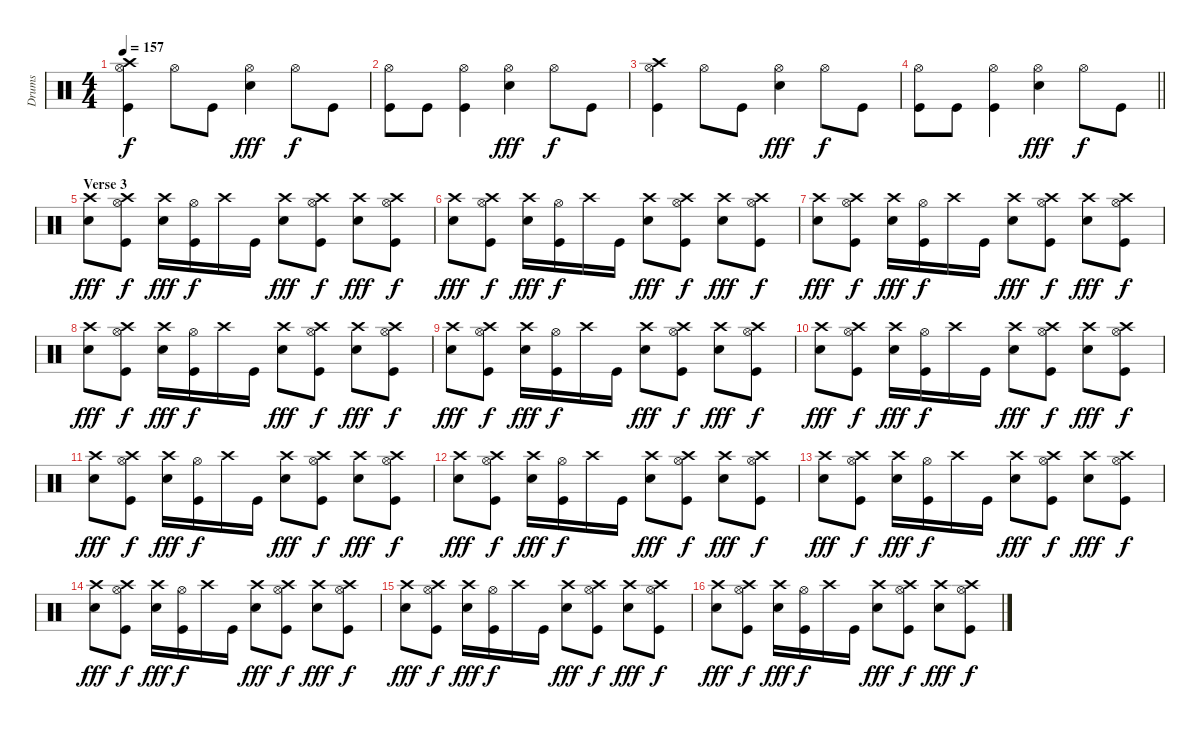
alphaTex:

\track ("Drums" "Drums") {instrument percussion}
\staff {score}
\articulation defaults
\ts (4 4)
\tempo 157
\clef neutral
\ks c
("Crash high (hit)" "Hi-Hat (open)" "Kick (hit)").4{dy f} "Hi-Hat (open)".8 "Kick (hit)".8 ("Hi-Hat (open)" "Snare (hit) 2").4{dy fff} "Hi-Hat (open)".8{dy f} "Kick (hit)".8 |
("Hi-Hat (open)" "Kick (hit)").8 "Kick (hit)".8 ("Hi-Hat (open)" "Kick (hit)").4 ("Hi-Hat (open)" "Snare (hit) 2").4{dy fff} "Hi-Hat (open)".8{dy f} "Kick (hit)".8 |
("Crash high (hit)" "Hi-Hat (open)" "Kick (hit)").4 "Hi-Hat (open)".8 "Kick (hit)".8 ("Hi-Hat (open)" "Snare (hit) 2").4{dy fff} "Hi-Hat (open)".8{dy f} "Kick (hit)".8 |
\barLineRight lightlight
("Hi-Hat (open)" "Kick (hit)").8 "Kick (hit)".8 ("Hi-Hat (open)" "Kick (hit)").4 ("Hi-Hat (open)" "Snare (hit) 2").4{dy fff} "Hi-Hat (open)".8{dy f} "Kick (hit)".8 |
\section ("" "Verse 3")
("Crash high (hit)" "Snare (hit) 2").8{dy fff} ("Crash high (hit)" "Hi-Hat (open)" "Kick (hit)").8{dy f} ("Crash high (hit)" "Snare (hit) 2").16{dy fff} ("Hi-Hat (open)" "Kick (hit)").16{dy f} "Crash high (hit)".16 "Kick (hit)".16 ("Crash high (hit)" "Snare (hit) 2").8{dy fff} ("Crash high (hit)" "Hi-Hat (open)" "Kick (hit)").8{dy f} ("Crash high (hit)" "Snare (hit) 2").8{dy fff} ("Crash high (hit)" "Hi-Hat (open)" "Kick (hit)").8{dy f} |
("Crash high (hit)" "Snare (hit) 2").8{dy fff} ("Crash high (hit)" "Hi-Hat (open)" "Kick (hit)").8{dy f} ("Crash high (hit)" "Snare (hit) 2").16{dy fff} ("Hi-Hat (open)" "Kick (hit)").16{dy f} "Crash high (hit)".16 "Kick (hit)".16 ("Crash high (hit)" "Snare (hit) 2").8{dy fff} ("Crash high (hit)" "Hi-Hat (open)" "Kick (hit)").8{dy f} ("Crash high (hit)" "Snare (hit) 2").8{dy fff} ("Crash high (hit)" "Hi-Hat (open)" "Kick (hit)").8{dy f} |
("Crash high (hit)" "Snare (hit) 2").8{dy fff} ("Crash high (hit)" "Hi-Hat (open)" "Kick (hit)").8{dy f} ("Crash high (hit)" "Snare (hit) 2").16{dy fff} ("Hi-Hat (open)" "Kick (hit)").16{dy f} "Crash high (hit)".16 "Kick (hit)".16 ("Crash high (hit)" "Snare (hit) 2").8{dy fff} ("Crash high (hit)" "Hi-Hat (open)" "Kick (hit)").8{dy f} ("Crash high (hit)" "Snare (hit) 2").8{dy fff} ("Crash high (hit)" "Hi-Hat (open)" "Kick (hit)").8{dy f} |
("Crash high (hit)" "Snare (hit) 2").8{dy fff} ("Crash high (hit)" "Hi-Hat (open)" "Kick (hit)").8{dy f} ("Crash high (hit)" "Snare (hit) 2").16{dy fff} ("Hi-Hat (open)" "Kick (hit)").16{dy f} "Crash high (hit)".16 "Kick (hit)".16 ("Crash high (hit)" "Snare (hit) 2").8{dy fff} ("Crash high (hit)" "Hi-Hat (open)" "Kick (hit)").8{dy f} ("Crash high (hit)" "Snare (hit) 2").8{dy fff} ("Crash high (hit)" "Hi-Hat (open)" "Kick (hit)").8{dy f} |
("Crash high (hit)" "Snare (hit) 2").8{dy fff} ("Crash high (hit)" "Hi-Hat (open)" "Kick (hit)").8{dy f} ("Crash high (hit)" "Snare (hit) 2").16{dy fff} ("Hi-Hat (open)" "Kick (hit)").16{dy f} "Crash high (hit)".16 "Kick (hit)".16 ("Crash high (hit)" "Snare (hit) 2").8{dy fff} ("Crash high (hit)" "Hi-Hat (open)" "Kick (hit)").8{dy f} ("Crash high (hit)" "Snare (hit) 2").8{dy fff} ("Crash high (hit)" "Hi-Hat (open)" "Kick (hit)").8{dy f} |
("Crash high (hit)" "Snare (hit) 2").8{dy fff} ("Crash high (hit)" "Hi-Hat (open)" "Kick (hit)").8{dy f} ("Crash high (hit)" "Snare (hit) 2").16{dy fff} ("Hi-Hat (open)" "Kick (hit)").16{dy f} "Crash high (hit)".16 "Kick (hit)".16 ("Crash high (hit)" "Snare (hit) 2").8{dy fff} ("Crash high (hit)" "Hi-Hat (open)" "Kick (hit)").8{dy f} ("Crash high (hit)" "Snare (hit) 2").8{dy fff} ("Crash high (hit)" "Hi-Hat (open)" "Kick (hit)").8{dy f} |
("Crash high (hit)" "Snare (hit) 2").8{dy fff} ("Crash high (hit)" "Hi-Hat (open)" "Kick (hit)").8{dy f} ("Crash high (hit)" "Snare (hit) 2").16{dy fff} ("Hi-Hat (open)" "Kick (hit)").16{dy f} "Crash high (hit)".16 "Kick (hit)".16 ("Crash high (hit)" "Snare (hit) 2").8{dy fff} ("Crash high (hit)" "Hi-Hat (open)" "Kick (hit)").8{dy f} ("Crash high (hit)" "Snare (hit) 2").8{dy fff} ("Crash high (hit)" "Hi-Hat (open)" "Kick (hit)").8{dy f} |
("Crash high (hit)" "Snare (hit) 2").8{dy fff} ("Crash high (hit)" "Hi-Hat (open)" "Kick (hit)").8{dy f} ("Crash high (hit)" "Snare (hit) 2").16{dy fff} ("Hi-Hat (open)" "Kick (hit)").16{dy f} "Crash high (hit)".16 "Kick (hit)".16 ("Crash high (hit)" "Snare (hit) 2").8{dy fff} ("Crash high (hit)" "Hi-Hat (open)" "Kick (hit)").8{dy f} ("Crash high (hit)" "Snare (hit) 2").8{dy fff} ("Crash high (hit)" "Hi-Hat (open)" "Kick (hit)").8{dy f} |
("Crash high (hit)" "Snare (hit) 2").8{dy fff} ("Crash high (hit)" "Hi-Hat (open)" "Kick (hit)").8{dy f} ("Crash high (hit)" "Snare (hit) 2").16{dy fff} ("Hi-Hat (open)" "Kick (hit)").16{dy f} "Crash high (hit)".16 "Kick (hit)".16 ("Crash high (hit)" "Snare (hit) 2").8{dy fff} ("Crash high (hit)" "Hi-Hat (open)" "Kick (hit)").8{dy f} ("Crash high (hit)" "Snare (hit) 2").8{dy fff} ("Crash high (hit)" "Hi-Hat (open)" "Kick (hit)").8{dy f} |
("Crash high (hit)" "Snare (hit) 2").8{dy fff} ("Crash high (hit)" "Hi-Hat (open)" "Kick (hit)").8{dy f} ("Crash high (hit)" "Snare (hit) 2").16{dy fff} ("Hi-Hat (open)" "Kick (hit)").16{dy f} "Crash high (hit)".16 "Kick (hit)".16 ("Crash high (hit)" "Snare (hit) 2").8{dy fff} ("Crash high (hit)" "Hi-Hat (open)" "Kick (hit)").8{dy f} ("Crash high (hit)" "Snare (hit) 2").8{dy fff} ("Crash high (hit)" "Hi-Hat (open)" "Kick (hit)").8{dy f} |
("Crash high (hit)" "Snare (hit) 2").8{dy fff} ("Crash high (hit)" "Hi-Hat (open)" "Kick (hit)").8{dy f} ("Crash high (hit)" "Snare (hit) 2").16{dy fff} ("Hi-Hat (open)" "Kick (hit)").16{dy f} "Crash high (hit)".16 "Kick (hit)".16 ("Crash high (hit)" "Snare (hit) 2").8{dy fff} ("Crash high (hit)" "Hi-Hat (open)" "Kick (hit)").8{dy f} ("Crash high (hit)" "Snare (hit) 2").8{dy fff} ("Crash high (hit)" "Hi-Hat (open)" "Kick (hit)").8{dy f} |
("Crash high (hit)" "Snare (hit) 2").8{dy fff} ("Crash high (hit)" "Hi-Hat (open)" "Kick (hit)").8{dy f} ("Crash high (hit)" "Snare (hit) 2").16{dy fff} ("Hi-Hat (open)" "Kick (hit)").16{dy f} "Crash high (hit)".16 "Kick (hit)".16 ("Crash high (hit)" "Snare (hit) 2").8{dy fff} ("Crash high (hit)" "Hi-Hat (open)" "Kick (hit)").8{dy f} ("Crash high (hit)" "Snare (hit) 2").8{dy fff} ("Crash high (hit)" "Hi-Hat (open)" "Kick (hit)").8{dy f}
